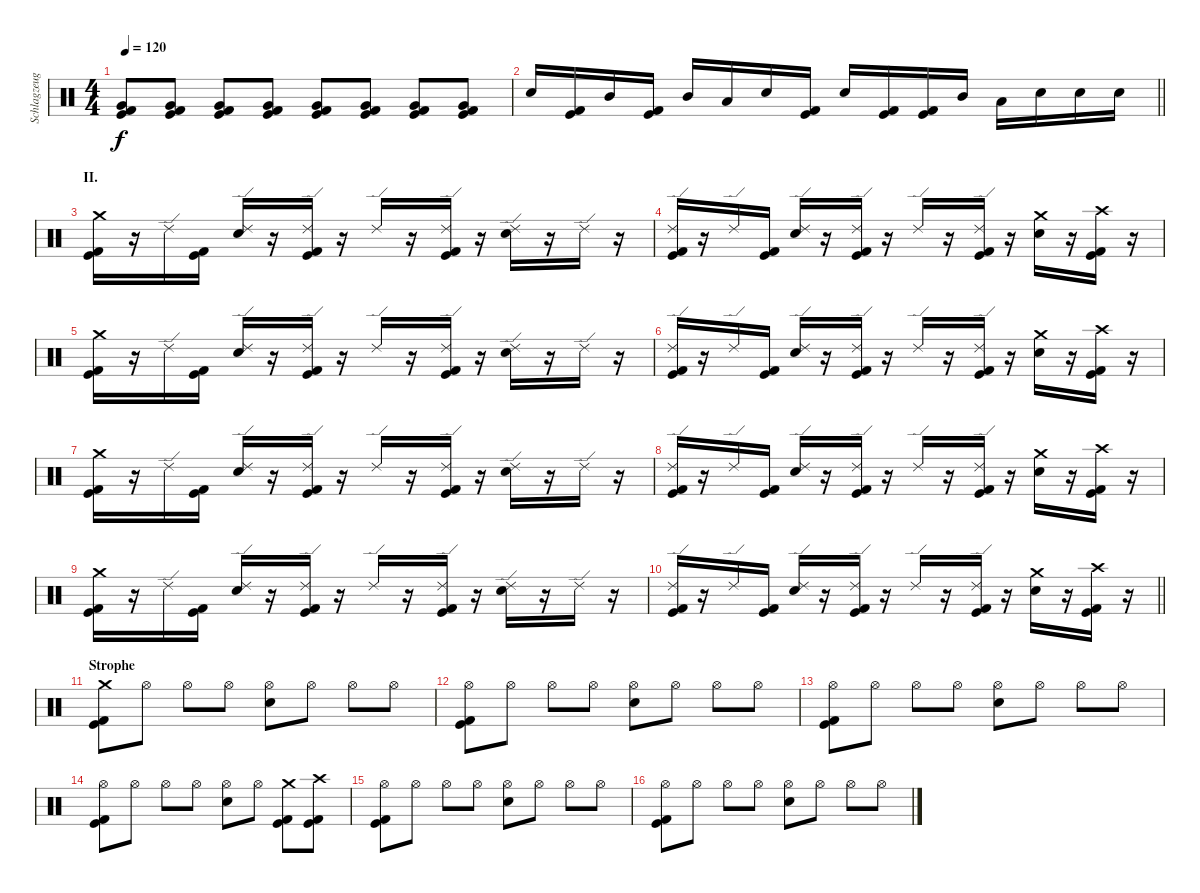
\track ("Schlagzeug" "Schlagzeug") {instrument percussion}
\staff {score}
\articulation defaults
\ts (4 4)
\tempo 120
\clef neutral
\ks c
("Very Low Tom (hit)" "Kick (hit) 2" "Kick (hit)").8{dy f} ("Very Low Tom (hit)" "Kick (hit) 2" "Kick (hit)").8 ("Very Low Tom (hit)" "Kick (hit) 2" "Kick (hit)").8 ("Very Low Tom (hit)" "Kick (hit) 2" "Kick (hit)").8 ("Very Low Tom (hit)" "Kick (hit) 2" "Kick (hit)").8 ("Very Low Tom (hit)" "Kick (hit) 2" "Kick (hit)").8 ("Very Low Tom (hit)" "Kick (hit) 2" "Kick (hit)").8 ("Very Low Tom (hit)" "Kick (hit) 2" "Kick (hit)").8 |
\barLineRight lightlight "Electric Snare (hit)".16
("Kick (hit) 2" "Kick (hit)").16 "Mid Tom (hit)".16 ("Kick (hit) 2" "Kick (hit)").16 "Mid Tom (hit)".16 "Low Tom (hit)".16 "Electric Snare (hit)".16 ("Kick (hit) 2" "Kick (hit)").16 "Electric Snare (hit)".16 ("Kick (hit) 2" "Kick (hit)").16 ("Kick (hit) 2" "Kick (hit)").16 "Mid Tom (hit)".16 "Low Tom (hit)".16 "Electric Snare (hit)".16 "Electric Snare (hit)".16 "Electric Snare (hit)".16 |
\section ("" "II.")
("Kick (hit) 2" "Kick (hit)" "Crash medium (hit)").16 r.16 "Ride (edge) 2".16 ("Kick (hit) 2" "Kick (hit)").16 ("Electric Snare (hit)" "Ride (edge) 2").16 r.16 ("Kick (hit) 2" "Kick (hit)" "Ride (edge) 2").16 r.16 "Ride (edge) 2".16 r.16 ("Kick (hit) 2" "Kick (hit)" "Ride (edge) 2").16 r.16 ("Electric Snare (hit)" "Ride (edge) 2").16 r.16 "Ride (edge) 2".16 r.16 |
("Kick (hit) 2" "Kick (hit)" "Ride (edge) 2").16 r.16 "Ride (edge) 2".16 ("Kick (hit) 2" "Kick (hit)").16 ("Electric Snare (hit)" "Ride (edge) 2").16 r.16 ("Kick (hit) 2" "Kick (hit)" "Ride (edge) 2").16 r.16 "Ride (edge) 2".16 r.16 ("Kick (hit) 2" "Kick (hit)" "Ride (edge) 2").16 r.16 ("Electric Snare (hit)" "Crash medium (hit)").16 r.16 ("Kick (hit) 2" "Kick (hit)" "Crash high (hit)").16 r.16 |
("Kick (hit) 2" "Kick (hit)" "Crash medium (hit)").16 r.16 "Ride (edge) 2".16 ("Kick (hit) 2" "Kick (hit)").16 ("Electric Snare (hit)" "Ride (edge) 2").16 r.16 ("Kick (hit) 2" "Kick (hit)" "Ride (edge) 2").16 r.16 "Ride (edge) 2".16 r.16 ("Kick (hit) 2" "Kick (hit)" "Ride (edge) 2").16 r.16 ("Electric Snare (hit)" "Ride (edge) 2").16 r.16 "Ride (edge) 2".16 r.16 |
("Kick (hit) 2" "Kick (hit)" "Ride (edge) 2").16 r.16 "Ride (edge) 2".16 ("Kick (hit) 2" "Kick (hit)").16 ("Electric Snare (hit)" "Ride (edge) 2").16 r.16 ("Kick (hit) 2" "Kick (hit)" "Ride (edge) 2").16 r.16 "Ride (edge) 2".16 r.16 ("Kick (hit) 2" "Kick (hit)" "Ride (edge) 2").16 r.16 ("Electric Snare (hit)" "Crash medium (hit)").16 r.16 ("Kick (hit) 2" "Kick (hit)" "Crash high (hit)").16 r.16 |
("Kick (hit) 2" "Kick (hit)" "Crash medium (hit)").16 r.16 "Ride (edge) 2".16 ("Kick (hit) 2" "Kick (hit)").16 ("Electric Snare (hit)" "Ride (edge) 2").16 r.16 ("Kick (hit) 2" "Kick (hit)" "Ride (edge) 2").16 r.16 "Ride (edge) 2".16 r.16 ("Kick (hit) 2" "Kick (hit)" "Ride (edge) 2").16 r.16 ("Electric Snare (hit)" "Ride (edge) 2").16 r.16 "Ride (edge) 2".16 r.16 |
("Kick (hit) 2" "Kick (hit)" "Ride (edge) 2").16 r.16 "Ride (edge) 2".16 ("Kick (hit) 2" "Kick (hit)").16 ("Electric Snare (hit)" "Ride (edge) 2").16 r.16 ("Kick (hit) 2" "Kick (hit)" "Ride (edge) 2").16 r.16 "Ride (edge) 2".16 r.16 ("Kick (hit) 2" "Kick (hit)" "Ride (edge) 2").16 r.16 ("Electric Snare (hit)" "Crash medium (hit)").16 r.16 ("Kick (hit) 2" "Kick (hit)" "Crash high (hit)").16 r.16 |
("Kick (hit) 2" "Kick (hit)" "Crash medium (hit)").16 r.16 "Ride (edge) 2".16 ("Kick (hit) 2" "Kick (hit)").16 ("Electric Snare (hit)" "Ride (edge) 2").16 r.16 ("Kick (hit) 2" "Kick (hit)" "Ride (edge) 2").16 r.16 "Ride (edge) 2".16 r.16 ("Kick (hit) 2" "Kick (hit)" "Ride (edge) 2").16 r.16 ("Electric Snare (hit)" "Ride (edge) 2").16 r.16 "Ride (edge) 2".16 r.16 |
\barLineRight lightlight
("Kick (hit) 2" "Kick (hit)" "Ride (edge) 2").16 r.16 "Ride (edge) 2".16 ("Kick (hit) 2" "Kick (hit)").16 ("Electric Snare (hit)" "Ride (edge) 2").16 r.16 ("Kick (hit) 2" "Kick (hit)" "Ride (edge) 2").16 r.16 "Ride (edge) 2".16 r.16 ("Kick (hit) 2" "Kick (hit)" "Ride (edge) 2").16 r.16 ("Electric Snare (hit)" "Crash medium (hit)").16 r.16 ("Kick (hit) 2" "Kick (hit)" "Crash high (hit)").16 r.16 |
\section ("" "Strophe")
("Kick (hit) 2" "Kick (hit)" "Crash medium (hit)").8 "Hi-Hat (open)".8 "Hi-Hat (open)".8 "Hi-Hat (open)".8 ("Hi-Hat (open)" "Electric Snare (hit)").8 "Hi-Hat (open)".8 "Hi-Hat (open)".8 "Hi-Hat (open)".8 |
("Hi-Hat (open)" "Kick (hit) 2" "Kick (hit)").8 "Hi-Hat (open)".8 "Hi-Hat (open)".8 "Hi-Hat (open)".8 ("Hi-Hat (open)" "Electric Snare (hit)").8 "Hi-Hat (open)".8 "Hi-Hat (open)".8 "Hi-Hat (open)".8 |
("Hi-Hat (open)" "Kick (hit) 2" "Kick (hit)").8 "Hi-Hat (open)".8 "Hi-Hat (open)".8 "Hi-Hat (open)".8 ("Hi-Hat (open)" "Electric Snare (hit)").8 "Hi-Hat (open)".8 "Hi-Hat (open)".8 "Hi-Hat (open)".8 |
("Hi-Hat (open)" "Kick (hit) 2" "Kick (hit)").8 "Hi-Hat (open)".8 "Hi-Hat (open)".8 "Hi-Hat (open)".8 ("Hi-Hat (open)" "Electric Snare (hit)").8 "Hi-Hat (open)".8 ("Kick (hit) 2" "Kick (hit)" "Crash medium (hit)").8 ("Kick (hit) 2" "Kick (hit)" "Crash high (hit)").8 |
("Hi-Hat (open)" "Kick (hit) 2" "Kick (hit)").8 "Hi-Hat (open)".8 "Hi-Hat (open)".8 "Hi-Hat (open)".8 ("Hi-Hat (open)" "Electric Snare (hit)").8 "Hi-Hat (open)".8 "Hi-Hat (open)".8 "Hi-Hat (open)".8 |
("Hi-Hat (open)" "Kick (hit) 2" "Kick (hit)").8 "Hi-Hat (open)".8 "Hi-Hat (open)".8 "Hi-Hat (open)".8 ("Hi-Hat (open)" "Electric Snare (hit)").8 "Hi-Hat (open)".8 "Hi-Hat (open)".8 "Hi-Hat (open)".8
